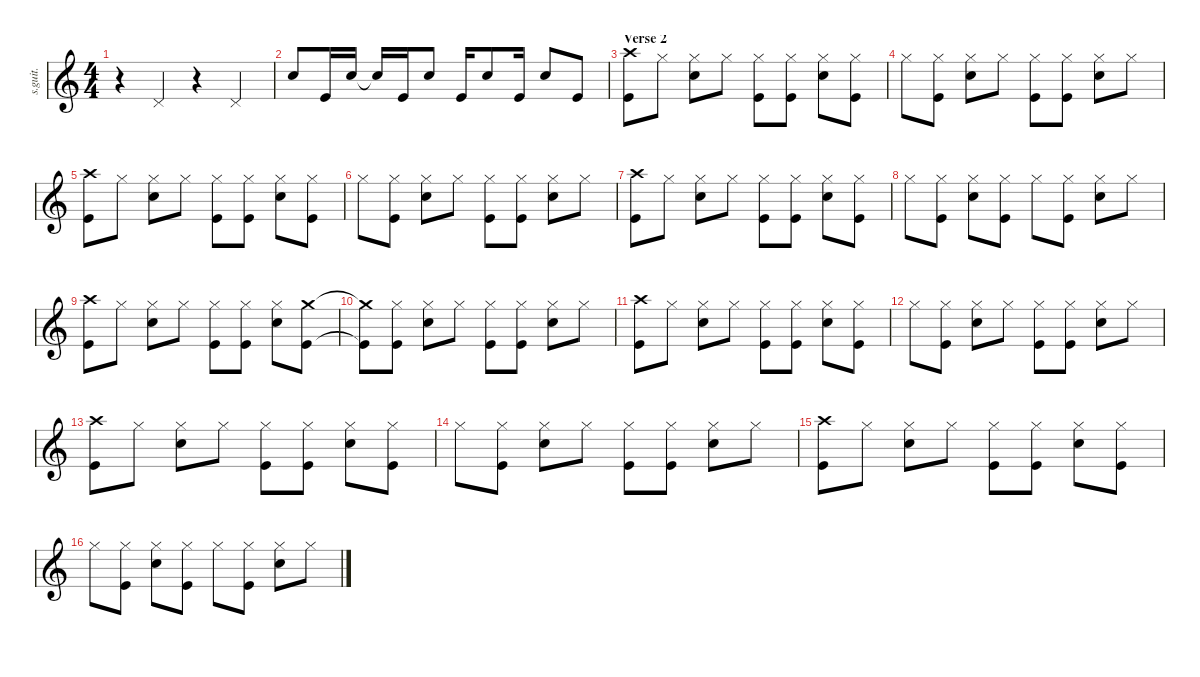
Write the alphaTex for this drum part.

\defaultSystemsLayout 4
\hideDynamics
\bracketExtendMode nobrackets
\track ("Tre Cool" "s.guit.") {instrument percussion}
\staff {score}
\articulation defaults
\ts (4 4)
\tempo (175 hide)
\clef g2
\ks c
r.4{dy fff} "Pedal Hi-Hat (hit)".4{lyrics (0 "") lyrics (1 "") lyrics (2 "") lyrics (3 "") lyrics (4 "")} r.4 "Pedal Hi-Hat (hit)".4{lyrics (0 "") lyrics (1 "") lyrics (2 "") lyrics (3 "") lyrics (4 "")} |
"Snare (hit) 2".8{lyrics (0 "") lyrics (1 "") lyrics (2 "") lyrics (3 "") lyrics (4 "")} "Kick (hit)".16{lyrics (0 "") lyrics (1 "") lyrics (2 "") lyrics (3 "") lyrics (4 "") dy ff} "Snare (hit) 2".16{lyrics (0 "") lyrics (1 "") lyrics (2 "") lyrics (3 "") lyrics (4 "") dy f} "Snare (hit) 2"{t}.16{lyrics (0 "") lyrics (1 "") lyrics (2 "") lyrics (3 "") lyrics (4 "")} "Kick (hit)".16{lyrics (0 "") lyrics (1 "") lyrics (2 "") lyrics (3 "") lyrics (4 "") dy ff} "Snare (hit) 2".8{lyrics (0 "") lyrics (1 "") lyrics (2 "") lyrics (3 "") lyrics (4 "") dy f} "Kick (hit)".16{lyrics (0 "") lyrics (1 "") lyrics (2 "") lyrics (3 "") lyrics (4 "") dy ff} "Snare (hit) 2".8{lyrics (0 "") lyrics (1 "") lyrics (2 "") lyrics (3 "") lyrics (4 "") dy f} "Kick (hit)".16{lyrics (0 "") lyrics (1 "") lyrics (2 "") lyrics (3 "") lyrics (4 "") dy ff} "Snare (hit) 2".8{lyrics (0 "") lyrics (1 "") lyrics (2 "") lyrics (3 "") lyrics (4 "") dy f} "Kick (hit)".8{lyrics (0 "") lyrics (1 "") lyrics (2 "") lyrics (3 "") lyrics (4 "") dy ff} |
\section ("" "Verse 2")
("Crash high (hit)" "Kick (hit)").8{lyrics (0 "") lyrics (1 "") lyrics (2 "") lyrics (3 "") lyrics (4 "")} "Hi-Hat (closed)".8{lyrics (0 "") lyrics (1 "") lyrics (2 "") lyrics (3 "") lyrics (4 "") dy f} ("Hi-Hat (closed)" "Snare (hit) 2").8{lyrics (0 "") lyrics (1 "") lyrics (2 "") lyrics (3 "") lyrics (4 "")} "Hi-Hat (closed)".8{lyrics (0 "") lyrics (1 "") lyrics (2 "") lyrics (3 "") lyrics (4 "")} ("Hi-Hat (closed)" "Kick (hit)").8{lyrics (0 "") lyrics (1 "") lyrics (2 "") lyrics (3 "") lyrics (4 "")} ("Hi-Hat (closed)" "Kick (hit)").8{lyrics (0 "") lyrics (1 "") lyrics (2 "") lyrics (3 "") lyrics (4 "")} ("Hi-Hat (closed)" "Snare (hit) 2").8{lyrics (0 "") lyrics (1 "") lyrics (2 "") lyrics (3 "") lyrics (4 "")} ("Hi-Hat (closed)" "Kick (hit)").8{lyrics (0 "") lyrics (1 "") lyrics (2 "") lyrics (3 "") lyrics (4 "")} |
"Hi-Hat (closed)".8{lyrics (0 "") lyrics (1 "") lyrics (2 "") lyrics (3 "") lyrics (4 "")} ("Hi-Hat (closed)" "Kick (hit)").8{lyrics (0 "") lyrics (1 "") lyrics (2 "") lyrics (3 "") lyrics (4 "")} ("Hi-Hat (closed)" "Snare (hit) 2").8{lyrics (0 "") lyrics (1 "") lyrics (2 "") lyrics (3 "") lyrics (4 "")} "Hi-Hat (closed)".8{lyrics (0 "") lyrics (1 "") lyrics (2 "") lyrics (3 "") lyrics (4 "")} ("Hi-Hat (closed)" "Kick (hit)").8{lyrics (0 "") lyrics (1 "") lyrics (2 "") lyrics (3 "") lyrics (4 "")} ("Hi-Hat (closed)" "Kick (hit)").8{lyrics (0 "") lyrics (1 "") lyrics (2 "") lyrics (3 "") lyrics (4 "")} ("Hi-Hat (closed)" "Snare (hit) 2").8{lyrics (0 "") lyrics (1 "") lyrics (2 "") lyrics (3 "") lyrics (4 "")} "Hi-Hat (closed)".8{lyrics (0 "") lyrics (1 "") lyrics (2 "") lyrics (3 "") lyrics (4 "")} |
("Crash high (hit)" "Kick (hit)").8{lyrics (0 "") lyrics (1 "") lyrics (2 "") lyrics (3 "") lyrics (4 "")} "Hi-Hat (closed)".8{lyrics (0 "") lyrics (1 "") lyrics (2 "") lyrics (3 "") lyrics (4 "")} ("Hi-Hat (closed)" "Snare (hit) 2").8{lyrics (0 "") lyrics (1 "") lyrics (2 "") lyrics (3 "") lyrics (4 "")} "Hi-Hat (closed)".8{lyrics (0 "") lyrics (1 "") lyrics (2 "") lyrics (3 "") lyrics (4 "")} ("Hi-Hat (closed)" "Kick (hit)").8{lyrics (0 "") lyrics (1 "") lyrics (2 "") lyrics (3 "") lyrics (4 "")} ("Hi-Hat (closed)" "Kick (hit)").8{lyrics (0 "") lyrics (1 "") lyrics (2 "") lyrics (3 "") lyrics (4 "")} ("Hi-Hat (closed)" "Snare (hit) 2").8{lyrics (0 "") lyrics (1 "") lyrics (2 "") lyrics (3 "") lyrics (4 "")} ("Hi-Hat (closed)" "Kick (hit)").8{lyrics (0 "") lyrics (1 "") lyrics (2 "") lyrics (3 "") lyrics (4 "")} |
"Hi-Hat (closed)".8{lyrics (0 "") lyrics (1 "") lyrics (2 "") lyrics (3 "") lyrics (4 "")} ("Hi-Hat (closed)" "Kick (hit)").8{lyrics (0 "") lyrics (1 "") lyrics (2 "") lyrics (3 "") lyrics (4 "")} ("Hi-Hat (closed)" "Snare (hit) 2").8{lyrics (0 "") lyrics (1 "") lyrics (2 "") lyrics (3 "") lyrics (4 "")} "Hi-Hat (closed)".8{lyrics (0 "") lyrics (1 "") lyrics (2 "") lyrics (3 "") lyrics (4 "")} ("Hi-Hat (closed)" "Kick (hit)").8{lyrics (0 "") lyrics (1 "") lyrics (2 "") lyrics (3 "") lyrics (4 "")} ("Hi-Hat (closed)" "Kick (hit)").8{lyrics (0 "") lyrics (1 "") lyrics (2 "") lyrics (3 "") lyrics (4 "")} ("Hi-Hat (closed)" "Snare (hit) 2").8{lyrics (0 "") lyrics (1 "") lyrics (2 "") lyrics (3 "") lyrics (4 "")} "Hi-Hat (closed)".8{lyrics (0 "") lyrics (1 "") lyrics (2 "") lyrics (3 "") lyrics (4 "")} |
("Crash high (hit)" "Kick (hit)").8{lyrics (0 "") lyrics (1 "") lyrics (2 "") lyrics (3 "") lyrics (4 "")} "Hi-Hat (closed)".8{lyrics (0 "") lyrics (1 "") lyrics (2 "") lyrics (3 "") lyrics (4 "")} ("Hi-Hat (closed)" "Snare (hit) 2").8{lyrics (0 "") lyrics (1 "") lyrics (2 "") lyrics (3 "") lyrics (4 "")} "Hi-Hat (closed)".8{lyrics (0 "") lyrics (1 "") lyrics (2 "") lyrics (3 "") lyrics (4 "")} ("Hi-Hat (closed)" "Kick (hit)").8{lyrics (0 "") lyrics (1 "") lyrics (2 "") lyrics (3 "") lyrics (4 "")} ("Hi-Hat (closed)" "Kick (hit)").8{lyrics (0 "") lyrics (1 "") lyrics (2 "") lyrics (3 "") lyrics (4 "")} ("Hi-Hat (closed)" "Snare (hit) 2").8{lyrics (0 "") lyrics (1 "") lyrics (2 "") lyrics (3 "") lyrics (4 "")} ("Hi-Hat (closed)" "Kick (hit)").8{lyrics (0 "") lyrics (1 "") lyrics (2 "") lyrics (3 "") lyrics (4 "")} |
"Hi-Hat (closed)".8{lyrics (0 "") lyrics (1 "") lyrics (2 "") lyrics (3 "") lyrics (4 "")} ("Hi-Hat (closed)" "Kick (hit)").8{lyrics (0 "") lyrics (1 "") lyrics (2 "") lyrics (3 "") lyrics (4 "")} ("Hi-Hat (closed)" "Snare (hit) 2").8{lyrics (0 "") lyrics (1 "") lyrics (2 "") lyrics (3 "") lyrics (4 "")} ("Hi-Hat (closed)" "Kick (hit)").8{lyrics (0 "") lyrics (1 "") lyrics (2 "") lyrics (3 "") lyrics (4 "")} "Hi-Hat (closed)".8{lyrics (0 "") lyrics (1 "") lyrics (2 "") lyrics (3 "") lyrics (4 "")} ("Hi-Hat (closed)" "Kick (hit)").8{lyrics (0 "") lyrics (1 "") lyrics (2 "") lyrics (3 "") lyrics (4 "")} ("Hi-Hat (closed)" "Snare (hit) 2").8{lyrics (0 "") lyrics (1 "") lyrics (2 "") lyrics (3 "") lyrics (4 "")} "Hi-Hat (closed)".8{lyrics (0 "") lyrics (1 "") lyrics (2 "") lyrics (3 "") lyrics (4 "")} |
("Crash high (hit)" "Kick (hit)").8{lyrics (0 "") lyrics (1 "") lyrics (2 "") lyrics (3 "") lyrics (4 "")} "Hi-Hat (closed)".8{lyrics (0 "") lyrics (1 "") lyrics (2 "") lyrics (3 "") lyrics (4 "")} ("Hi-Hat (closed)" "Snare (hit) 2").8{lyrics (0 "") lyrics (1 "") lyrics (2 "") lyrics (3 "") lyrics (4 "")} "Hi-Hat (closed)".8{lyrics (0 "") lyrics (1 "") lyrics (2 "") lyrics (3 "") lyrics (4 "")} ("Hi-Hat (closed)" "Kick (hit)").8{lyrics (0 "") lyrics (1 "") lyrics (2 "") lyrics (3 "") lyrics (4 "")} ("Hi-Hat (closed)" "Kick (hit)").8{lyrics (0 "") lyrics (1 "") lyrics (2 "") lyrics (3 "") lyrics (4 "")} ("Hi-Hat (closed)" "Snare (hit) 2").8{lyrics (0 "") lyrics (1 "") lyrics (2 "") lyrics (3 "") lyrics (4 "")} ("Crash medium (hit)" "Kick (hit)").8{lyrics (0 "") lyrics (1 "") lyrics (2 "") lyrics (3 "") lyrics (4 "")} |
("Crash medium (hit)"{t} "Kick (hit)"{t}).8{lyrics (0 "") lyrics (1 "") lyrics (2 "") lyrics (3 "") lyrics (4 "")} ("Hi-Hat (closed)" "Kick (hit)").8{lyrics (0 "") lyrics (1 "") lyrics (2 "") lyrics (3 "") lyrics (4 "")} ("Hi-Hat (closed)" "Snare (hit) 2").8{lyrics (0 "") lyrics (1 "") lyrics (2 "") lyrics (3 "") lyrics (4 "")} "Hi-Hat (closed)".8{lyrics (0 "") lyrics (1 "") lyrics (2 "") lyrics (3 "") lyrics (4 "")} ("Hi-Hat (closed)" "Kick (hit)").8{lyrics (0 "") lyrics (1 "") lyrics (2 "") lyrics (3 "") lyrics (4 "")} ("Hi-Hat (closed)" "Kick (hit)").8{lyrics (0 "") lyrics (1 "") lyrics (2 "") lyrics (3 "") lyrics (4 "")} ("Hi-Hat (closed)" "Snare (hit) 2").8{lyrics (0 "") lyrics (1 "") lyrics (2 "") lyrics (3 "") lyrics (4 "")} "Hi-Hat (closed)".8{lyrics (0 "") lyrics (1 "") lyrics (2 "") lyrics (3 "") lyrics (4 "")} |
("Crash high (hit)" "Kick (hit)").8{lyrics (0 "") lyrics (1 "") lyrics (2 "") lyrics (3 "") lyrics (4 "")} "Hi-Hat (closed)".8{lyrics (0 "") lyrics (1 "") lyrics (2 "") lyrics (3 "") lyrics (4 "")} ("Hi-Hat (closed)" "Snare (hit) 2").8{lyrics (0 "") lyrics (1 "") lyrics (2 "") lyrics (3 "") lyrics (4 "")} "Hi-Hat (closed)".8{lyrics (0 "") lyrics (1 "") lyrics (2 "") lyrics (3 "") lyrics (4 "")} ("Hi-Hat (closed)" "Kick (hit)").8{lyrics (0 "") lyrics (1 "") lyrics (2 "") lyrics (3 "") lyrics (4 "")} ("Hi-Hat (closed)" "Kick (hit)").8{lyrics (0 "") lyrics (1 "") lyrics (2 "") lyrics (3 "") lyrics (4 "")} ("Hi-Hat (closed)" "Snare (hit) 2").8{lyrics (0 "") lyrics (1 "") lyrics (2 "") lyrics (3 "") lyrics (4 "")} ("Hi-Hat (closed)" "Kick (hit)").8{lyrics (0 "") lyrics (1 "") lyrics (2 "") lyrics (3 "") lyrics (4 "")} |
"Hi-Hat (closed)".8{lyrics (0 "") lyrics (1 "") lyrics (2 "") lyrics (3 "") lyrics (4 "")} ("Hi-Hat (closed)" "Kick (hit)").8{lyrics (0 "") lyrics (1 "") lyrics (2 "") lyrics (3 "") lyrics (4 "")} ("Hi-Hat (closed)" "Snare (hit) 2").8{lyrics (0 "") lyrics (1 "") lyrics (2 "") lyrics (3 "") lyrics (4 "")} "Hi-Hat (closed)".8{lyrics (0 "") lyrics (1 "") lyrics (2 "") lyrics (3 "") lyrics (4 "")} ("Hi-Hat (closed)" "Kick (hit)").8{lyrics (0 "") lyrics (1 "") lyrics (2 "") lyrics (3 "") lyrics (4 "")} ("Hi-Hat (closed)" "Kick (hit)").8{lyrics (0 "") lyrics (1 "") lyrics (2 "") lyrics (3 "") lyrics (4 "")} ("Hi-Hat (closed)" "Snare (hit) 2").8{lyrics (0 "") lyrics (1 "") lyrics (2 "") lyrics (3 "") lyrics (4 "")} "Hi-Hat (closed)".8{lyrics (0 "") lyrics (1 "") lyrics (2 "") lyrics (3 "") lyrics (4 "")} |
("Crash high (hit)" "Kick (hit)").8{lyrics (0 "") lyrics (1 "") lyrics (2 "") lyrics (3 "") lyrics (4 "")} "Hi-Hat (closed)".8{lyrics (0 "") lyrics (1 "") lyrics (2 "") lyrics (3 "") lyrics (4 "")} ("Hi-Hat (closed)" "Snare (hit) 2").8{lyrics (0 "") lyrics (1 "") lyrics (2 "") lyrics (3 "") lyrics (4 "")} "Hi-Hat (closed)".8{lyrics (0 "") lyrics (1 "") lyrics (2 "") lyrics (3 "") lyrics (4 "")} ("Hi-Hat (closed)" "Kick (hit)").8{lyrics (0 "") lyrics (1 "") lyrics (2 "") lyrics (3 "") lyrics (4 "")} ("Hi-Hat (closed)" "Kick (hit)").8{lyrics (0 "") lyrics (1 "") lyrics (2 "") lyrics (3 "") lyrics (4 "")} ("Hi-Hat (closed)" "Snare (hit) 2").8{lyrics (0 "") lyrics (1 "") lyrics (2 "") lyrics (3 "") lyrics (4 "")} ("Hi-Hat (closed)" "Kick (hit)").8{lyrics (0 "") lyrics (1 "") lyrics (2 "") lyrics (3 "") lyrics (4 "")} |
"Hi-Hat (closed)".8{lyrics (0 "") lyrics (1 "") lyrics (2 "") lyrics (3 "") lyrics (4 "")} ("Hi-Hat (closed)" "Kick (hit)").8{lyrics (0 "") lyrics (1 "") lyrics (2 "") lyrics (3 "") lyrics (4 "")} ("Hi-Hat (closed)" "Snare (hit) 2").8{lyrics (0 "") lyrics (1 "") lyrics (2 "") lyrics (3 "") lyrics (4 "")} "Hi-Hat (closed)".8{lyrics (0 "") lyrics (1 "") lyrics (2 "") lyrics (3 "") lyrics (4 "")} ("Hi-Hat (closed)" "Kick (hit)").8{lyrics (0 "") lyrics (1 "") lyrics (2 "") lyrics (3 "") lyrics (4 "")} ("Hi-Hat (closed)" "Kick (hit)").8{lyrics (0 "") lyrics (1 "") lyrics (2 "") lyrics (3 "") lyrics (4 "")} ("Hi-Hat (closed)" "Snare (hit) 2").8{lyrics (0 "") lyrics (1 "") lyrics (2 "") lyrics (3 "") lyrics (4 "")} "Hi-Hat (closed)".8{lyrics (0 "") lyrics (1 "") lyrics (2 "") lyrics (3 "") lyrics (4 "")} |
("Crash high (hit)" "Kick (hit)").8{lyrics (0 "") lyrics (1 "") lyrics (2 "") lyrics (3 "") lyrics (4 "")} "Hi-Hat (closed)".8{lyrics (0 "") lyrics (1 "") lyrics (2 "") lyrics (3 "") lyrics (4 "")} ("Hi-Hat (closed)" "Snare (hit) 2").8{lyrics (0 "") lyrics (1 "") lyrics (2 "") lyrics (3 "") lyrics (4 "")} "Hi-Hat (closed)".8{lyrics (0 "") lyrics (1 "") lyrics (2 "") lyrics (3 "") lyrics (4 "")} ("Hi-Hat (closed)" "Kick (hit)").8{lyrics (0 "") lyrics (1 "") lyrics (2 "") lyrics (3 "") lyrics (4 "")} ("Hi-Hat (closed)" "Kick (hit)").8{lyrics (0 "") lyrics (1 "") lyrics (2 "") lyrics (3 "") lyrics (4 "")} ("Hi-Hat (closed)" "Snare (hit) 2").8{lyrics (0 "") lyrics (1 "") lyrics (2 "") lyrics (3 "") lyrics (4 "")} ("Hi-Hat (closed)" "Kick (hit)").8{lyrics (0 "") lyrics (1 "") lyrics (2 "") lyrics (3 "") lyrics (4 "")} |
"Hi-Hat (closed)".8{lyrics (0 "") lyrics (1 "") lyrics (2 "") lyrics (3 "") lyrics (4 "")} ("Hi-Hat (closed)" "Kick (hit)").8{lyrics (0 "") lyrics (1 "") lyrics (2 "") lyrics (3 "") lyrics (4 "")} ("Hi-Hat (closed)" "Snare (hit) 2").8{lyrics (0 "") lyrics (1 "") lyrics (2 "") lyrics (3 "") lyrics (4 "")} ("Hi-Hat (closed)" "Kick (hit)").8{lyrics (0 "") lyrics (1 "") lyrics (2 "") lyrics (3 "") lyrics (4 "")} "Hi-Hat (closed)".8{lyrics (0 "") lyrics (1 "") lyrics (2 "") lyrics (3 "") lyrics (4 "")} ("Hi-Hat (closed)" "Kick (hit)").8{lyrics (0 "") lyrics (1 "") lyrics (2 "") lyrics (3 "") lyrics (4 "")} ("Hi-Hat (closed)" "Snare (hit) 2").8{lyrics (0 "") lyrics (1 "") lyrics (2 "") lyrics (3 "") lyrics (4 "")} "Hi-Hat (closed)".8{lyrics (0 "") lyrics (1 "") lyrics (2 "") lyrics (3 "") lyrics (4 "")}
